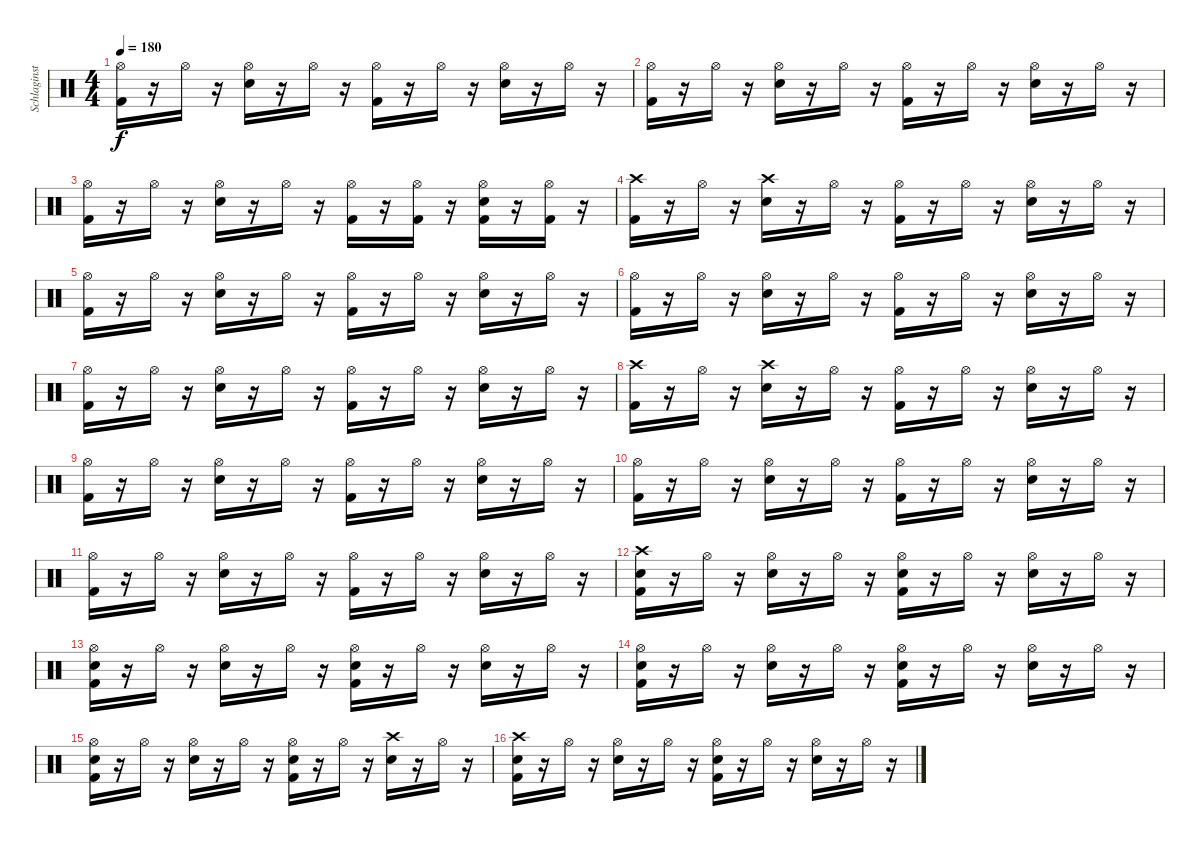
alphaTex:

\track ("Schlaginstrumente - Auswahl" "Schlaginst") {instrument percussion}
\staff {score}
\articulation defaults
\ts (4 4)
\tempo 180
\clef neutral
\ks c
("Hi-Hat (open)" "Kick (hit) 2").16{dy f} r.16 "Hi-Hat (open)".16 r.16 ("Hi-Hat (open)" "Snare (hit) 2").16 r.16 "Hi-Hat (open)".16 r.16 ("Hi-Hat (open)" "Kick (hit) 2").16 r.16 "Hi-Hat (open)".16 r.16 ("Hi-Hat (open)" "Snare (hit) 2").16 r.16 "Hi-Hat (open)".16 r.16 |
("Hi-Hat (open)" "Kick (hit) 2").16 r.16 "Hi-Hat (open)".16 r.16 ("Hi-Hat (open)" "Snare (hit) 2").16 r.16 "Hi-Hat (open)".16 r.16 ("Hi-Hat (open)" "Kick (hit) 2").16 r.16 "Hi-Hat (open)".16 r.16 ("Hi-Hat (open)" "Snare (hit) 2").16 r.16 "Hi-Hat (open)".16 r.16 |
("Hi-Hat (open)" "Kick (hit) 2").16 r.16 "Hi-Hat (open)".16 r.16 ("Hi-Hat (open)" "Snare (hit) 2").16 r.16 "Hi-Hat (open)".16 r.16 ("Hi-Hat (open)" "Kick (hit) 2").16 r.16 ("Hi-Hat (open)" "Kick (hit) 2").16 r.16 ("Hi-Hat (open)" "Snare (hit) 2" "Kick (hit) 2").16 r.16 ("Hi-Hat (open)" "Kick (hit) 2").16 r.16 |
("Crash high (hit)" "Kick (hit) 2").16 r.16 "Hi-Hat (open)".16 r.16 ("Crash high (hit)" "Snare (hit) 2").16 r.16 "Hi-Hat (open)".16 r.16 ("Hi-Hat (open)" "Kick (hit) 2").16 r.16 "Hi-Hat (open)".16 r.16 ("Hi-Hat (open)" "Snare (hit) 2").16 r.16 "Hi-Hat (open)".16 r.16 |
("Hi-Hat (open)" "Kick (hit) 2").16 r.16 "Hi-Hat (open)".16 r.16 ("Hi-Hat (open)" "Snare (hit) 2").16 r.16 "Hi-Hat (open)".16 r.16 ("Hi-Hat (open)" "Kick (hit) 2").16 r.16 "Hi-Hat (open)".16 r.16 ("Hi-Hat (open)" "Snare (hit) 2").16 r.16 "Hi-Hat (open)".16 r.16 |
("Hi-Hat (open)" "Kick (hit) 2").16 r.16 "Hi-Hat (open)".16 r.16 ("Hi-Hat (open)" "Snare (hit) 2").16 r.16 "Hi-Hat (open)".16 r.16 ("Hi-Hat (open)" "Kick (hit) 2").16 r.16 "Hi-Hat (open)".16 r.16 ("Hi-Hat (open)" "Snare (hit) 2").16 r.16 "Hi-Hat (open)".16 r.16 |
("Hi-Hat (open)" "Kick (hit) 2").16 r.16 "Hi-Hat (open)".16 r.16 ("Hi-Hat (open)" "Snare (hit) 2").16 r.16 "Hi-Hat (open)".16 r.16 ("Hi-Hat (open)" "Kick (hit) 2").16 r.16 "Hi-Hat (open)".16 r.16 ("Hi-Hat (open)" "Snare (hit) 2").16 r.16 "Hi-Hat (open)".16 r.16 |
("Crash high (hit)" "Kick (hit) 2").16 r.16 "Hi-Hat (open)".16 r.16 ("Crash high (hit)" "Snare (hit) 2").16 r.16 "Hi-Hat (open)".16 r.16 ("Hi-Hat (open)" "Kick (hit) 2").16 r.16 "Hi-Hat (open)".16 r.16 ("Hi-Hat (open)" "Snare (hit) 2").16 r.16 "Hi-Hat (open)".16 r.16 |
("Hi-Hat (open)" "Kick (hit) 2").16 r.16 "Hi-Hat (open)".16 r.16 ("Hi-Hat (open)" "Snare (hit) 2").16 r.16 "Hi-Hat (open)".16 r.16 ("Hi-Hat (open)" "Kick (hit) 2").16 r.16 "Hi-Hat (open)".16 r.16 ("Hi-Hat (open)" "Snare (hit) 2").16 r.16 "Hi-Hat (open)".16 r.16 |
("Hi-Hat (open)" "Kick (hit) 2").16 r.16 "Hi-Hat (open)".16 r.16 ("Hi-Hat (open)" "Snare (hit) 2").16 r.16 "Hi-Hat (open)".16 r.16 ("Hi-Hat (open)" "Kick (hit) 2").16 r.16 "Hi-Hat (open)".16 r.16 ("Hi-Hat (open)" "Snare (hit) 2").16 r.16 "Hi-Hat (open)".16 r.16 |
("Hi-Hat (open)" "Kick (hit) 2").16 r.16 "Hi-Hat (open)".16 r.16 ("Hi-Hat (open)" "Snare (hit) 2").16 r.16 "Hi-Hat (open)".16 r.16 ("Hi-Hat (open)" "Kick (hit) 2").16 r.16 "Hi-Hat (open)".16 r.16 ("Hi-Hat (open)" "Snare (hit) 2").16 r.16 "Hi-Hat (open)".16 r.16 |
("Crash high (hit)" "Snare (hit) 2" "Kick (hit) 2").16 r.16 "Hi-Hat (open)".16 r.16 ("Hi-Hat (open)" "Snare (hit) 2").16 r.16 "Hi-Hat (open)".16 r.16 ("Hi-Hat (open)" "Snare (hit) 2" "Kick (hit) 2").16 r.16 "Hi-Hat (open)".16 r.16 ("Hi-Hat (open)" "Snare (hit) 2").16 r.16 "Hi-Hat (open)".16 r.16 |
("Hi-Hat (open)" "Snare (hit) 2" "Kick (hit) 2").16 r.16 "Hi-Hat (open)".16 r.16 ("Hi-Hat (open)" "Snare (hit) 2").16 r.16 "Hi-Hat (open)".16 r.16 ("Hi-Hat (open)" "Snare (hit) 2" "Kick (hit) 2").16 r.16 "Hi-Hat (open)".16 r.16 ("Hi-Hat (open)" "Snare (hit) 2").16 r.16 "Hi-Hat (open)".16 r.16 |
("Hi-Hat (open)" "Snare (hit) 2" "Kick (hit) 2").16 r.16 "Hi-Hat (open)".16 r.16 ("Hi-Hat (open)" "Snare (hit) 2").16 r.16 "Hi-Hat (open)".16 r.16 ("Hi-Hat (open)" "Snare (hit) 2" "Kick (hit) 2").16 r.16 "Hi-Hat (open)".16 r.16 ("Hi-Hat (open)" "Snare (hit) 2").16 r.16 "Hi-Hat (open)".16 r.16 |
("Hi-Hat (open)" "Snare (hit) 2" "Kick (hit) 2").16 r.16 "Hi-Hat (open)".16 r.16 ("Hi-Hat (open)" "Snare (hit) 2").16 r.16 "Hi-Hat (open)".16 r.16 ("Hi-Hat (open)" "Snare (hit) 2" "Kick (hit) 2").16 r.16 "Hi-Hat (open)".16 r.16 ("Crash high (hit)" "Snare (hit) 2").16 r.16 "Hi-Hat (open)".16 r.16 |
("Crash high (hit)" "Snare (hit) 2" "Kick (hit) 2").16 r.16 "Hi-Hat (open)".16 r.16 ("Hi-Hat (open)" "Snare (hit) 2").16 r.16 "Hi-Hat (open)".16 r.16 ("Hi-Hat (open)" "Snare (hit) 2" "Kick (hit) 2").16 r.16 "Hi-Hat (open)".16 r.16 ("Hi-Hat (open)" "Snare (hit) 2").16 r.16 "Hi-Hat (open)".16 r.16
